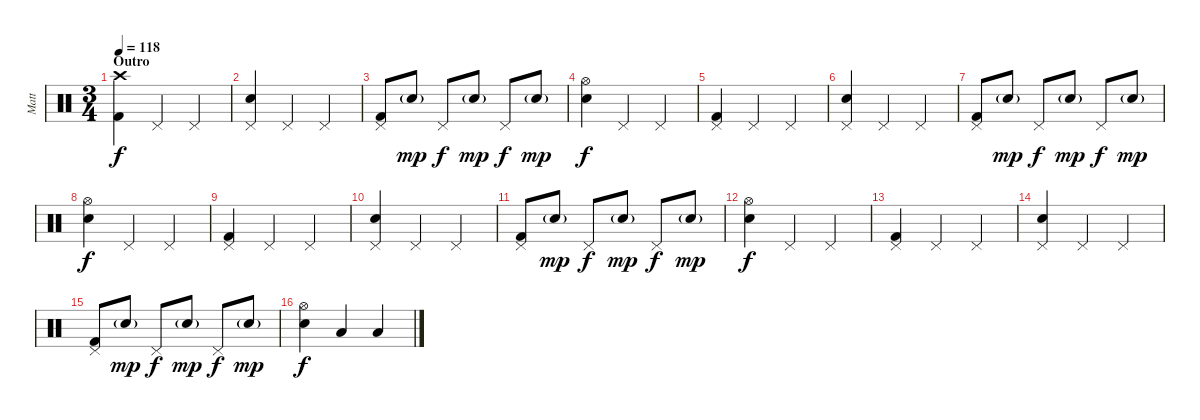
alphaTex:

\track ("Matt" "Matt") {instrument percussion}
\staff {score}
\articulation defaults
\ts (3 4)
\section ("" "Outro")
\tempo 118
\clef neutral
\ks c
("Crash high (hit)" "Kick (hit) 2").4{dy f} "Pedal Hi-Hat (hit)".4 "Pedal Hi-Hat (hit)".4 |
("Pedal Hi-Hat (hit)" "Snare (hit) 2").4 "Pedal Hi-Hat (hit)".4 "Pedal Hi-Hat (hit)".4 |
("Pedal Hi-Hat (hit)" "Kick (hit) 2").8 "Snare (hit) 2"{g}.8{dy mp} "Pedal Hi-Hat (hit)".8{dy f} "Snare (hit) 2"{g}.8{dy mp} "Pedal Hi-Hat (hit)".8{dy f} "Snare (hit) 2"{g}.8{dy mp} |
("Hi-Hat (open)" "Snare (hit) 2").4{dy f} "Pedal Hi-Hat (hit)".4 "Pedal Hi-Hat (hit)".4 |
("Pedal Hi-Hat (hit)" "Kick (hit) 2").4 "Pedal Hi-Hat (hit)".4 "Pedal Hi-Hat (hit)".4 |
("Pedal Hi-Hat (hit)" "Snare (hit) 2").4 "Pedal Hi-Hat (hit)".4 "Pedal Hi-Hat (hit)".4 |
("Pedal Hi-Hat (hit)" "Kick (hit) 2").8 "Snare (hit) 2"{g}.8{dy mp} "Pedal Hi-Hat (hit)".8{dy f} "Snare (hit) 2"{g}.8{dy mp} "Pedal Hi-Hat (hit)".8{dy f} "Snare (hit) 2"{g}.8{dy mp} |
("Hi-Hat (open)" "Snare (hit) 2").4{dy f} "Pedal Hi-Hat (hit)".4 "Pedal Hi-Hat (hit)".4 |
("Pedal Hi-Hat (hit)" "Kick (hit) 2").4 "Pedal Hi-Hat (hit)".4 "Pedal Hi-Hat (hit)".4 |
("Pedal Hi-Hat (hit)" "Snare (hit) 2").4 "Pedal Hi-Hat (hit)".4 "Pedal Hi-Hat (hit)".4 |
("Pedal Hi-Hat (hit)" "Kick (hit) 2").8 "Snare (hit) 2"{g}.8{dy mp} "Pedal Hi-Hat (hit)".8{dy f} "Snare (hit) 2"{g}.8{dy mp} "Pedal Hi-Hat (hit)".8{dy f} "Snare (hit) 2"{g}.8{dy mp} |
("Hi-Hat (open)" "Snare (hit) 2").4{dy f} "Pedal Hi-Hat (hit)".4 "Pedal Hi-Hat (hit)".4 |
("Pedal Hi-Hat (hit)" "Kick (hit) 2").4 "Pedal Hi-Hat (hit)".4 "Pedal Hi-Hat (hit)".4 |
("Pedal Hi-Hat (hit)" "Snare (hit) 2").4 "Pedal Hi-Hat (hit)".4 "Pedal Hi-Hat (hit)".4 |
("Pedal Hi-Hat (hit)" "Kick (hit) 2").8 "Electric Snare (hit)"{g}.8{dy mp} "Pedal Hi-Hat (hit)".8{dy f} "Snare (hit) 2"{g}.8{dy mp} "Pedal Hi-Hat (hit)".8{dy f} "Snare (hit) 2"{g}.8{dy mp} |
("Hi-Hat (open)" "Snare (hit) 2").4{dy f} "Low Tom (hit)".4 "Low Floor Tom (hit)".4
